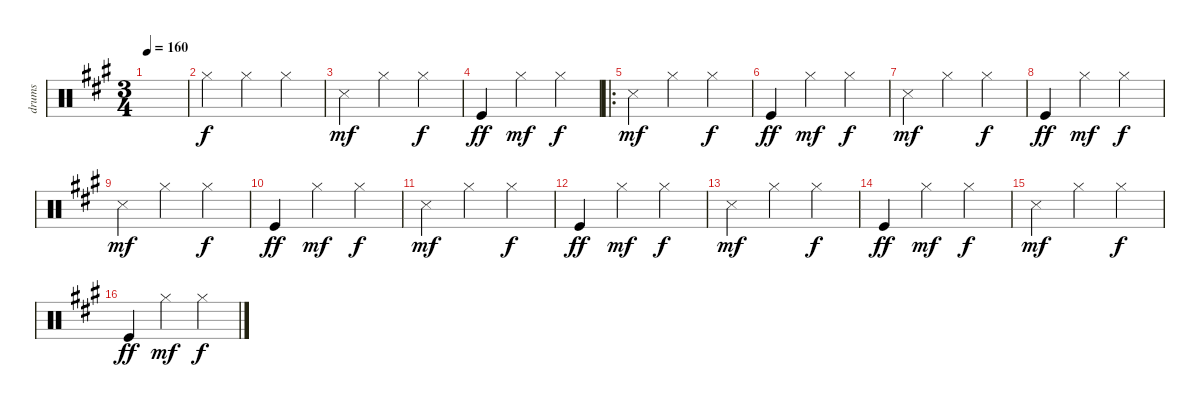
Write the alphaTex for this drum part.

\track ("drums" "drums") {instrument percussion}
\staff {score}
\articulation defaults
\ts (3 4)
\tempo 160
\clef neutral
\ks a
|
"Hi-Hat (closed)".4 "Hi-Hat (closed)".4 "Hi-Hat (closed)".4 |
"Snare (side stick) 3".4{dy mf} "Hi-Hat (closed)".4 "Hi-Hat (closed)".4{dy f} |
"Kick (hit)".4{dy ff} "Hi-Hat (closed)".4{dy mf} "Hi-Hat (closed)".4{dy f} |
\ro "Snare (side stick) 3".4{dy mf} "Hi-Hat (closed)".4 "Hi-Hat (closed)".4{dy f}
|
"Kick (hit)".4{dy ff} "Hi-Hat (closed)".4{dy mf} "Hi-Hat (closed)".4{dy f} |
"Snare (side stick) 3".4{dy mf} "Hi-Hat (closed)".4 "Hi-Hat (closed)".4{dy f} |
"Kick (hit)".4{dy ff} "Hi-Hat (closed)".4{dy mf} "Hi-Hat (closed)".4{dy f} |
"Snare (side stick) 3".4{dy mf} "Hi-Hat (closed)".4 "Hi-Hat (closed)".4{dy f} |
"Kick (hit)".4{dy ff} "Hi-Hat (closed)".4{dy mf} "Hi-Hat (closed)".4{dy f} |
"Snare (side stick) 3".4{dy mf} "Hi-Hat (closed)".4 "Hi-Hat (closed)".4{dy f} |
"Kick (hit)".4{dy ff} "Hi-Hat (closed)".4{dy mf} "Hi-Hat (closed)".4{dy f} |
"Snare (side stick) 3".4{dy mf} "Hi-Hat (closed)".4 "Hi-Hat (closed)".4{dy f} |
"Kick (hit)".4{dy ff} "Hi-Hat (closed)".4{dy mf} "Hi-Hat (closed)".4{dy f} |
"Snare (side stick) 3".4{dy mf} "Hi-Hat (closed)".4 "Hi-Hat (closed)".4{dy f} |
"Kick (hit)".4{dy ff} "Hi-Hat (closed)".4{dy mf} "Hi-Hat (closed)".4{dy f}
